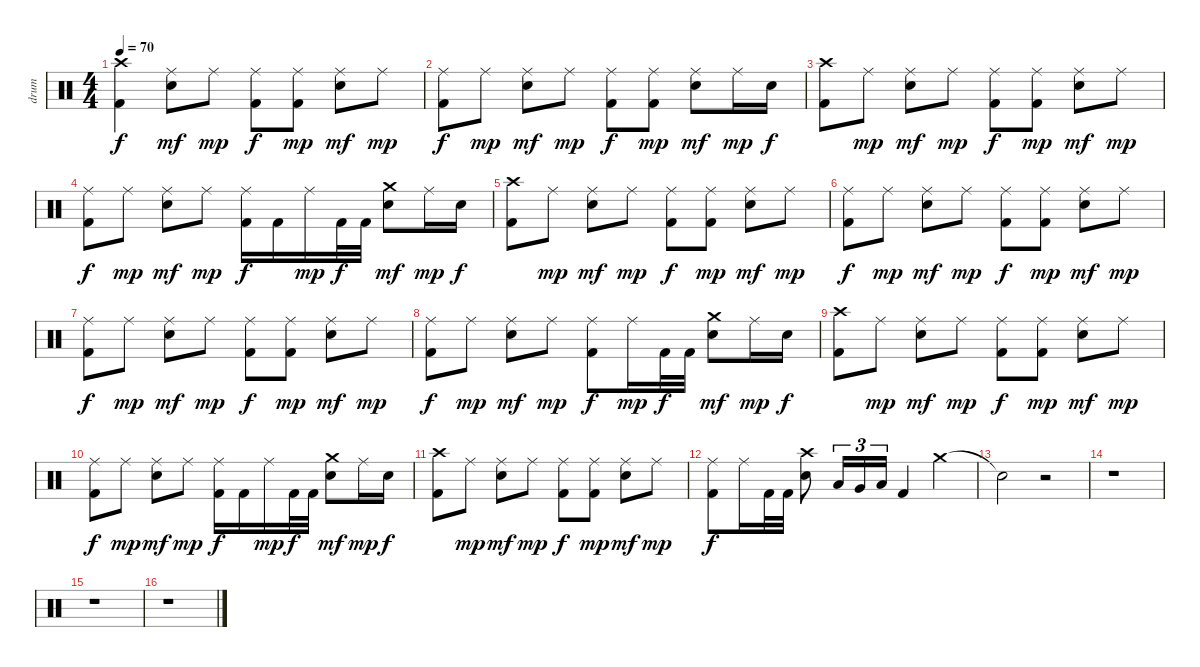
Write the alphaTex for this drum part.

\track ("drum" "drum") {instrument percussion}
\staff {score}
\articulation defaults
\ts (4 4)
\tempo 70
\clef neutral
\ks c
("Crash high (hit)" "Kick (hit) 2").4{dy f} ("Ride (middle)" "Electric Snare (hit)").8{dy mf} "Ride (middle)".8{dy mp} ("Ride (middle)" "Kick (hit) 2").8{dy f} ("Ride (middle)" "Kick (hit) 2").8{dy mp} ("Ride (middle)" "Electric Snare (hit)").8{dy mf} "Ride (middle)".8{dy mp} |
("Ride (middle)" "Kick (hit) 2").8{dy f} "Ride (middle)".8{dy mp} ("Ride (middle)" "Electric Snare (hit)").8{dy mf} "Ride (middle)".8{dy mp} ("Ride (middle)" "Kick (hit) 2").8{dy f} ("Ride (middle)" "Kick (hit) 2").8{dy mp} ("Ride (middle)" "Electric Snare (hit)").8{dy mf} "Ride (middle)".16{dy mp} "Electric Snare (hit)".16{dy f} |
("Crash high (hit)" "Kick (hit) 2").8 "Ride (middle)".8{dy mp} ("Ride (middle)" "Electric Snare (hit)").8{dy mf} "Ride (middle)".8{dy mp} ("Ride (middle)" "Kick (hit) 2").8{dy f} ("Ride (middle)" "Kick (hit) 2").8{dy mp} ("Ride (middle)" "Electric Snare (hit)").8{dy mf} "Ride (middle)".8{dy mp} |
("Ride (middle)" "Kick (hit) 2").8{dy f} "Ride (middle)".8{dy mp} ("Ride (middle)" "Electric Snare (hit)").8{dy mf} "Ride (middle)".8{dy mp} ("Ride (middle)" "Kick (hit) 2").16{dy f} "Kick (hit) 2".16 "Ride (middle)".16{dy mp} "Kick (hit) 2".32{dy f} "Kick (hit) 2".32 ("Crash medium (hit)" "Electric Snare (hit)").8{dy mf} "Ride (middle)".16{dy mp} "Electric Snare (hit)".16{dy f} |
("Crash high (hit)" "Kick (hit) 2").8 "Ride (middle)".8{dy mp} ("Ride (middle)" "Electric Snare (hit)").8{dy mf} "Ride (middle)".8{dy mp} ("Ride (middle)" "Kick (hit) 2").8{dy f} ("Ride (middle)" "Kick (hit) 2").8{dy mp} ("Ride (middle)" "Electric Snare (hit)").8{dy mf} "Ride (middle)".8{dy mp} |
("Ride (middle)" "Kick (hit) 2").8{dy f} "Ride (middle)".8{dy mp} ("Ride (middle)" "Electric Snare (hit)").8{dy mf} "Ride (middle)".8{dy mp} ("Ride (middle)" "Kick (hit) 2").8{dy f} ("Ride (middle)" "Kick (hit) 2").8{dy mp} ("Ride (middle)" "Electric Snare (hit)").8{dy mf} "Ride (middle)".8{dy mp} |
("Ride (middle)" "Kick (hit) 2").8{dy f} "Ride (middle)".8{dy mp} ("Ride (middle)" "Electric Snare (hit)").8{dy mf} "Ride (middle)".8{dy mp} ("Ride (middle)" "Kick (hit) 2").8{dy f} ("Ride (middle)" "Kick (hit) 2").8{dy mp} ("Ride (middle)" "Electric Snare (hit)").8{dy mf} "Ride (middle)".8{dy mp} |
("Ride (middle)" "Kick (hit) 2").8{dy f} "Ride (middle)".8{dy mp} ("Ride (middle)" "Electric Snare (hit)").8{dy mf} "Ride (middle)".8{dy mp} ("Ride (middle)" "Kick (hit) 2").8{dy f} "Ride (middle)".16{dy mp} "Kick (hit) 2".32{dy f} "Kick (hit) 2".32 ("Crash medium (hit)" "Electric Snare (hit)").8{dy mf} "Ride (middle)".16{dy mp} "Electric Snare (hit)".16{dy f} |
("Crash high (hit)" "Kick (hit) 2").8 "Ride (middle)".8{dy mp} ("Ride (middle)" "Electric Snare (hit)").8{dy mf} "Ride (middle)".8{dy mp} ("Ride (middle)" "Kick (hit) 2").8{dy f} ("Ride (middle)" "Kick (hit) 2").8{dy mp} ("Ride (middle)" "Electric Snare (hit)").8{dy mf} "Ride (middle)".8{dy mp} |
("Ride (middle)" "Kick (hit) 2").8{dy f} "Ride (middle)".8{dy mp} ("Ride (middle)" "Electric Snare (hit)").8{dy mf} "Ride (middle)".8{dy mp} ("Ride (middle)" "Kick (hit) 2").16{dy f} "Kick (hit) 2".16 "Ride (middle)".16{dy mp} "Kick (hit) 2".32{dy f} "Kick (hit) 2".32 ("Crash medium (hit)" "Electric Snare (hit)").8{dy mf} "Ride (middle)".16{dy mp} "Electric Snare (hit)".16{dy f} |
("Crash high (hit)" "Kick (hit) 2").8 "Ride (middle)".8{dy mp} ("Ride (middle)" "Electric Snare (hit)").8{dy mf} "Ride (middle)".8{dy mp} ("Ride (middle)" "Kick (hit) 2").8{dy f} ("Ride (middle)" "Kick (hit) 2").8{dy mp} ("Ride (middle)" "Electric Snare (hit)").8{dy mf} "Ride (middle)".8{dy mp} |
("Ride (middle)" "Kick (hit) 2").8{dy f} "Ride (middle)".16 "Kick (hit) 2".32 "Kick (hit) 2".32 ("Crash high (hit)" "Electric Snare (hit)").8 "Low Floor Tom (hit)".16{tu (3 2)} "Very Low Tom (hit)".16{tu (3 2)} "Low Floor Tom (hit)".16{tu (3 2)} "Kick (hit) 2".4 "Crash medium (hit)".4 |
"Snare (hit)"{t}.2 r.2 |
r.1 |
r.1 |
r.1
